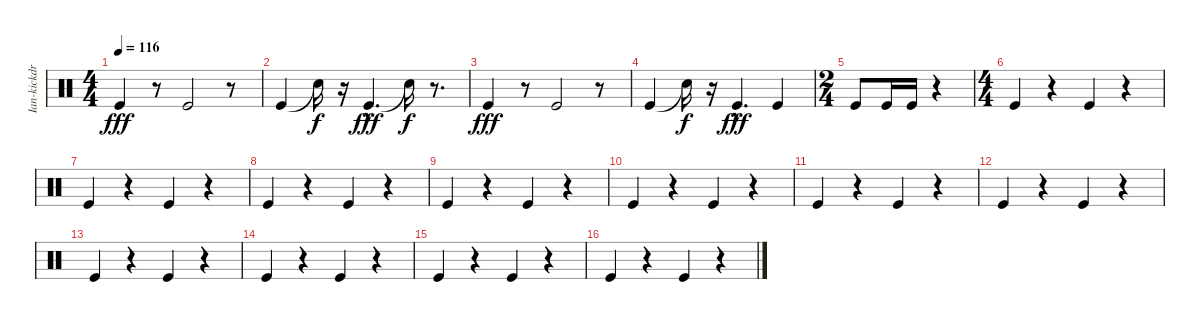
\track ("Ian-kickdrum" "Ian-kickdr") {instrument percussion}
\staff {score}
\articulation defaults
\ts (4 4)
\tempo 116
\clef neutral
\ks c "Kick (hit)".4{dy fff}
r.8 "Kick (hit)".2 r.8 |
"Kick (hit)".4 "Snare (hit)"{t}.16{dy f} r.16 "Kick (hit)"{hac}.4{d dy fff} "Snare (hit)"{t}.16{dy f} r.8{d} |
"Kick (hit)".4{dy fff} r.8 "Kick (hit)".2 r.8 |
"Kick (hit)".4 "Snare (hit)"{t}.16{dy f} r.16 "Kick (hit)"{hac}.4{d dy fff} "Kick (hit)".4 |
\ts (2 4)
"Kick (hit)".8 "Kick (hit)".16 "Kick (hit)".16 r.4 |
\ts (4 4)
"Kick (hit)".4 r.4 "Kick (hit)".4 r.4 |
"Kick (hit)".4 r.4 "Kick (hit)".4 r.4 |
"Kick (hit)".4 r.4 "Kick (hit)".4 r.4 |
"Kick (hit)".4 r.4 "Kick (hit)".4 r.4 |
"Kick (hit)".4 r.4 "Kick (hit)".4 r.4 |
"Kick (hit)".4 r.4 "Kick (hit)".4 r.4 |
"Kick (hit)".4 r.4 "Kick (hit)".4 r.4 |
"Kick (hit)".4 r.4 "Kick (hit)".4 r.4 |
"Kick (hit)".4 r.4 "Kick (hit)".4 r.4 |
"Kick (hit)".4 r.4 "Kick (hit)".4 r.4 |
"Kick (hit)".4 r.4 "Kick (hit)".4 r.4
